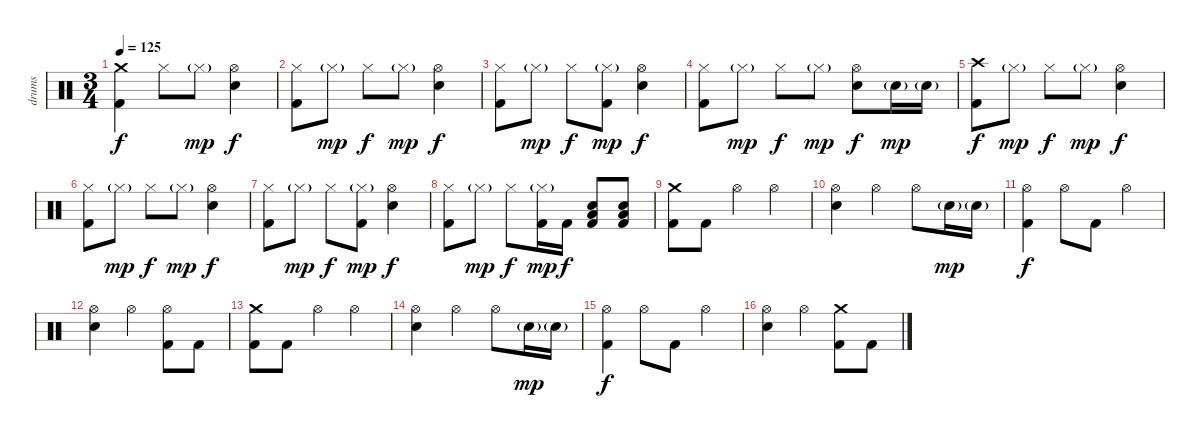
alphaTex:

\track ("drums" "drums") {instrument percussion}
\staff {score}
\articulation defaults
\ts (3 4)
\tempo 125
\clef neutral
\ks c
("Crash medium (hit)" "Kick (hit) 2").4{dy f} "Hi-Hat (closed)".8 "Hi-Hat (closed)"{g}.8{dy mp} ("Hi-Hat (open)" "Electric Snare (hit)").4{dy f} |
("Hi-Hat (closed)" "Kick (hit) 2").8 "Hi-Hat (closed)"{g}.8{dy mp} "Hi-Hat (closed)".8{dy f} "Hi-Hat (closed)"{g}.8{dy mp} ("Hi-Hat (open)" "Electric Snare (hit)").4{dy f} |
("Hi-Hat (closed)" "Kick (hit) 2").8 "Hi-Hat (closed)"{g}.8{dy mp} "Hi-Hat (closed)".8{dy f} ("Hi-Hat (closed)"{g} "Kick (hit) 2").8{dy mp} ("Hi-Hat (open)" "Electric Snare (hit)").4{dy f} |
("Hi-Hat (closed)" "Kick (hit) 2").8 "Hi-Hat (closed)"{g}.8{dy mp} "Hi-Hat (closed)".8{dy f} "Hi-Hat (closed)"{g}.8{dy mp} ("Hi-Hat (open)" "Electric Snare (hit)").8{dy f} "Electric Snare (hit)"{g}.16{dy mp} "Electric Snare (hit)"{g}.16 |
("Crash high (hit)" "Kick (hit) 2").8{dy f} "Hi-Hat (closed)"{g}.8{dy mp} "Hi-Hat (closed)".8{dy f} "Hi-Hat (closed)"{g}.8{dy mp} ("Hi-Hat (open)" "Electric Snare (hit)").4{dy f} |
("Hi-Hat (closed)" "Kick (hit) 2").8 "Hi-Hat (closed)"{g}.8{dy mp} "Hi-Hat (closed)".8{dy f} "Hi-Hat (closed)"{g}.8{dy mp} ("Hi-Hat (open)" "Electric Snare (hit)").4{dy f} |
("Hi-Hat (closed)" "Kick (hit) 2").8 "Hi-Hat (closed)"{g}.8{dy mp} "Hi-Hat (closed)".8{dy f} ("Hi-Hat (closed)"{g} "Kick (hit) 2").8{dy mp} ("Hi-Hat (open)" "Electric Snare (hit)").4{dy f} |
("Hi-Hat (closed)" "Kick (hit) 2").8 "Hi-Hat (closed)"{g}.8{dy mp} "Hi-Hat (closed)".8{dy f} ("Hi-Hat (closed)"{g} "Kick (hit) 2").16{dy mp} "Kick (hit) 2".16{dy f} ("Low Tom (hit)" "Electric Snare (hit)" "Kick (hit) 2").8 ("Low Tom (hit)" "Electric Snare (hit)" "Kick (hit) 2").8 |
("Crash medium (hit)" "Kick (hit) 2").8 "Kick (hit) 2".8 "Hi-Hat (open)".4 "Hi-Hat (open)".4 |
("Hi-Hat (open)" "Electric Snare (hit)").4 "Hi-Hat (open)".4 "Hi-Hat (open)".8 "Electric Snare (hit)"{g}.16{dy mp} "Electric Snare (hit)"{g}.16 |
("Hi-Hat (open)" "Kick (hit) 2").4{dy f} "Hi-Hat (open)".8 "Kick (hit) 2".8 "Hi-Hat (open)".4 |
("Hi-Hat (open)" "Electric Snare (hit)").4 "Hi-Hat (open)".4 ("Hi-Hat (open)" "Kick (hit) 2").8 "Kick (hit) 2".8 |
("Crash medium (hit)" "Kick (hit) 2").8 "Kick (hit) 2".8 "Hi-Hat (open)".4 "Hi-Hat (open)".4 |
("Hi-Hat (open)" "Electric Snare (hit)").4 "Hi-Hat (open)".4 "Hi-Hat (open)".8 "Electric Snare (hit)"{g}.16{dy mp} "Electric Snare (hit)"{g}.16 |
("Hi-Hat (open)" "Kick (hit) 2").4{dy f} "Hi-Hat (open)".8 "Kick (hit) 2".8 "Hi-Hat (open)".4 |
("Hi-Hat (open)" "Electric Snare (hit)").4 "Hi-Hat (open)".4 ("Crash medium (hit)" "Kick (hit) 2").8 "Kick (hit) 2".8
